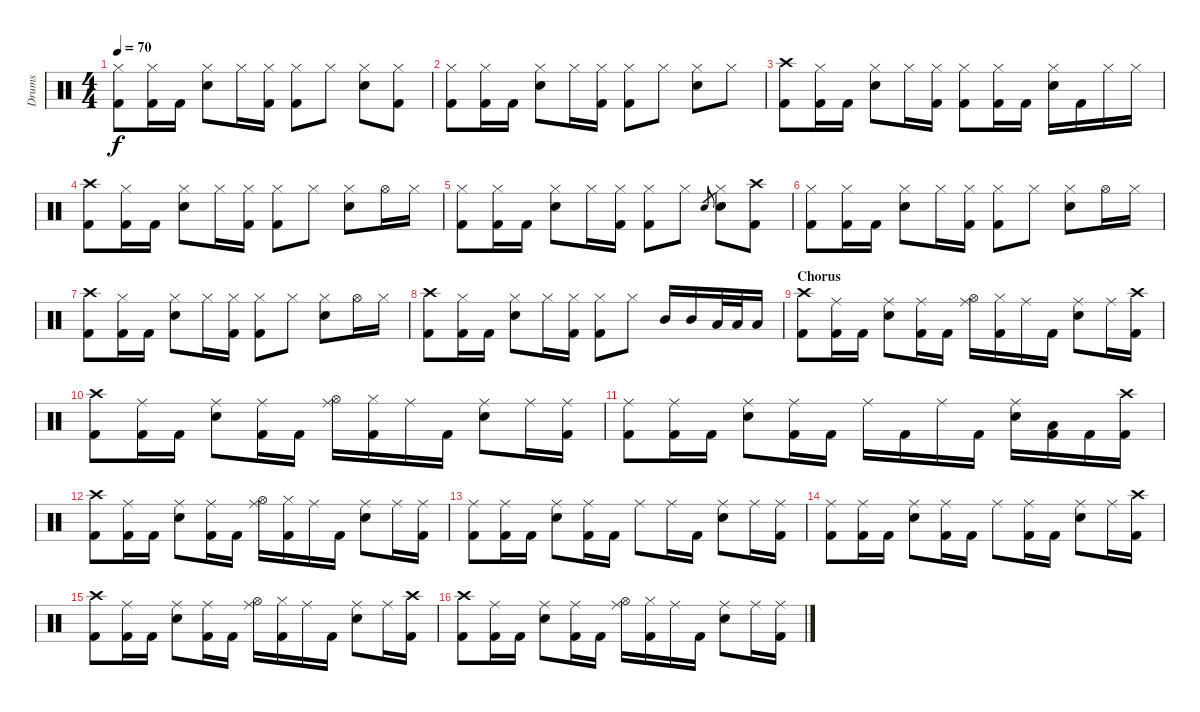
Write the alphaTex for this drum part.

\track ("Drums" "Drums") {instrument percussion}
\staff {score}
\articulation defaults
\ts (4 4)
\tempo 70
\clef neutral
\ks c
("Hi-Hat (closed)" "Kick (hit) 2").8{dy f} ("Hi-Hat (closed)" "Kick (hit) 2").16 "Kick (hit) 2".16 ("Hi-Hat (closed)" "Electric Snare (hit)").8 "Hi-Hat (closed)".16 ("Hi-Hat (closed)" "Kick (hit) 2").16 ("Hi-Hat (closed)" "Kick (hit) 2").8 "Hi-Hat (closed)".8 ("Hi-Hat (closed)" "Electric Snare (hit)").8 ("Hi-Hat (closed)" "Kick (hit) 2").8 |
("Hi-Hat (closed)" "Kick (hit) 2").8 ("Hi-Hat (closed)" "Kick (hit) 2").16 "Kick (hit) 2".16 ("Hi-Hat (closed)" "Electric Snare (hit)").8 "Hi-Hat (closed)".16 ("Hi-Hat (closed)" "Kick (hit) 2").16 ("Hi-Hat (closed)" "Kick (hit) 2").8 "Hi-Hat (closed)".8 ("Hi-Hat (closed)" "Electric Snare (hit)").8 "Hi-Hat (closed)".8 |
("Crash high (hit)" "Kick (hit) 2").8 ("Hi-Hat (closed)" "Kick (hit) 2").16 "Kick (hit) 2".16 ("Hi-Hat (closed)" "Electric Snare (hit)").8 "Hi-Hat (closed)".16 ("Hi-Hat (closed)" "Kick (hit) 2").16 ("Hi-Hat (closed)" "Kick (hit) 2").8 ("Hi-Hat (closed)" "Kick (hit) 2").16 "Kick (hit) 2".16 ("Hi-Hat (closed)" "Electric Snare (hit)").16 "Kick (hit) 2".16 "Hi-Hat (closed)".16 "Hi-Hat (closed)".16 |
("Crash high (hit)" "Kick (hit) 2").8 ("Hi-Hat (closed)" "Kick (hit) 2").16 "Kick (hit) 2".16 ("Hi-Hat (closed)" "Electric Snare (hit)").8 "Hi-Hat (closed)".16 ("Hi-Hat (closed)" "Kick (hit) 2").16 ("Hi-Hat (closed)" "Kick (hit) 2").8 "Hi-Hat (closed)".8 ("Hi-Hat (closed)" "Electric Snare (hit)").8 "Hi-Hat (open)".16 "Hi-Hat (closed)".16 |
("Hi-Hat (closed)" "Kick (hit) 2").8 ("Hi-Hat (closed)" "Kick (hit) 2").16 "Kick (hit) 2".16 ("Hi-Hat (closed)" "Electric Snare (hit)").8 "Hi-Hat (closed)".16 ("Hi-Hat (closed)" "Kick (hit) 2").16 ("Hi-Hat (closed)" "Kick (hit) 2").8 "Hi-Hat (closed)".8 "Electric Snare (hit)".8{gr} ("Hi-Hat (closed)" "Electric Snare (hit)").8 ("Crash high (hit)" "Kick (hit) 2").8 |
("Hi-Hat (closed)" "Kick (hit) 2").8 ("Hi-Hat (closed)" "Kick (hit) 2").16 "Kick (hit) 2".16 ("Hi-Hat (closed)" "Electric Snare (hit)").8 "Hi-Hat (closed)".16 ("Hi-Hat (closed)" "Kick (hit) 2").16 ("Hi-Hat (closed)" "Kick (hit) 2").8 "Hi-Hat (closed)".8 ("Hi-Hat (closed)" "Electric Snare (hit)").8 "Hi-Hat (open)".16 "Hi-Hat (closed)".16 |
("Crash high (hit)" "Kick (hit) 2").8 ("Hi-Hat (closed)" "Kick (hit) 2").16 "Kick (hit) 2".16 ("Hi-Hat (closed)" "Electric Snare (hit)").8 "Hi-Hat (closed)".16 ("Hi-Hat (closed)" "Kick (hit) 2").16 ("Hi-Hat (closed)" "Kick (hit) 2").8 "Hi-Hat (closed)".8 ("Hi-Hat (closed)" "Electric Snare (hit)").8 "Hi-Hat (open)".16 "Hi-Hat (closed)".16 |
("Crash high (hit)" "Kick (hit) 2").8 ("Hi-Hat (closed)" "Kick (hit) 2").16 "Kick (hit) 2".16 ("Hi-Hat (closed)" "Electric Snare (hit)").8 "Hi-Hat (closed)".16 ("Hi-Hat (closed)" "Kick (hit) 2").16 ("Hi-Hat (closed)" "Kick (hit) 2").8 "Hi-Hat (closed)".8 "Mid Tom (hit)".16 "Mid Tom (hit)".16 "Low Floor Tom (hit)".32 "Low Floor Tom (hit)".32 "Low Tom (hit)".16 |
\section ("" "Chorus")
("Crash high (hit)" "Kick (hit) 2").8 ("Ride (middle)" "Kick (hit) 2").16 "Kick (hit) 2".16 ("Ride (middle)" "Electric Snare (hit)").8 ("Ride (middle)" "Kick (hit) 2").16 "Kick (hit) 2".16 ("Ride (middle)" "Hi-Hat (open)").16 ("Hi-Hat (closed)" "Kick (hit) 2").16 "Ride (middle)".16 "Kick (hit) 2".16 ("Ride (middle)" "Electric Snare (hit)").8 "Ride (middle)".16 ("Crash high (hit)" "Kick (hit) 2").16 |
("Crash high (hit)" "Kick (hit) 2").8 ("Ride (middle)" "Kick (hit) 2").16 "Kick (hit) 2".16 ("Ride (middle)" "Electric Snare (hit)").8 ("Ride (middle)" "Kick (hit) 2").16 "Kick (hit) 2".16 ("Ride (middle)" "Hi-Hat (open)").16 ("Hi-Hat (closed)" "Kick (hit) 2").16 "Ride (middle)".16 "Kick (hit) 2".16 ("Ride (middle)" "Electric Snare (hit)").8 "Ride (middle)".16 ("Ride (middle)" "Kick (hit) 2").16 |
("Ride (middle)" "Kick (hit) 2").8 ("Ride (middle)" "Kick (hit) 2").16 "Kick (hit) 2".16 ("Ride (middle)" "Electric Snare (hit)").8 ("Ride (middle)" "Kick (hit) 2").16 "Kick (hit) 2".16 "Ride (middle)".16 "Kick (hit) 2".16 "Ride (middle)".16 "Kick (hit) 2".16 ("Ride (middle)" "Electric Snare (hit)").16 ("Low Tom (hit)" "Kick (hit) 2").16 "Kick (hit) 2".16 ("Crash high (hit)" "Kick (hit) 2").16 |
("Crash high (hit)" "Kick (hit) 2").8 ("Ride (middle)" "Kick (hit) 2").16 "Kick (hit) 2".16 ("Ride (middle)" "Electric Snare (hit)").8 ("Ride (middle)" "Kick (hit) 2").16 "Kick (hit) 2".16 ("Ride (middle)" "Hi-Hat (open)").16 ("Hi-Hat (closed)" "Kick (hit) 2").16 "Ride (middle)".16 "Kick (hit) 2".16 ("Ride (middle)" "Electric Snare (hit)").8 "Ride (middle)".16 ("Ride (middle)" "Kick (hit) 2").16 |
("Ride (middle)" "Kick (hit) 2").8 ("Ride (middle)" "Kick (hit) 2").16 "Kick (hit) 2".16 ("Ride (middle)" "Electric Snare (hit)").8 ("Ride (middle)" "Kick (hit) 2").16 "Kick (hit) 2".16 "Ride (middle)".8 "Ride (middle)".16 "Kick (hit) 2".16 ("Ride (middle)" "Electric Snare (hit)").8 "Ride (middle)".16 ("Ride (middle)" "Kick (hit) 2").16 |
("Ride (middle)" "Kick (hit) 2").8 ("Ride (middle)" "Kick (hit) 2").16 "Kick (hit) 2".16 ("Ride (middle)" "Electric Snare (hit)").8 ("Ride (middle)" "Kick (hit) 2").16 "Kick (hit) 2".16 "Ride (middle)".8 ("Ride (middle)" "Kick (hit) 2").16 "Kick (hit) 2".16 ("Ride (middle)" "Electric Snare (hit)").8 "Ride (middle)".16 ("Crash high (hit)" "Kick (hit) 2").16 |
("Crash high (hit)" "Kick (hit) 2").8 ("Ride (middle)" "Kick (hit) 2").16 "Kick (hit) 2".16 ("Ride (middle)" "Electric Snare (hit)").8 ("Ride (middle)" "Kick (hit) 2").16 "Kick (hit) 2".16 ("Ride (middle)" "Hi-Hat (open)").16 ("Hi-Hat (closed)" "Kick (hit) 2").16 "Ride (middle)".16 "Kick (hit) 2".16 ("Ride (middle)" "Electric Snare (hit)").8 "Ride (middle)".16 ("Crash high (hit)" "Kick (hit) 2").16 |
("Crash high (hit)" "Kick (hit) 2").8 ("Ride (middle)" "Kick (hit) 2").16 "Kick (hit) 2".16 ("Ride (middle)" "Electric Snare (hit)").8 ("Ride (middle)" "Kick (hit) 2").16 "Kick (hit) 2".16 ("Ride (middle)" "Hi-Hat (open)").16 ("Hi-Hat (closed)" "Kick (hit) 2").16 "Ride (middle)".16 "Kick (hit) 2".16 ("Ride (middle)" "Electric Snare (hit)").8 "Ride (middle)".16 ("Ride (middle)" "Kick (hit) 2").16
